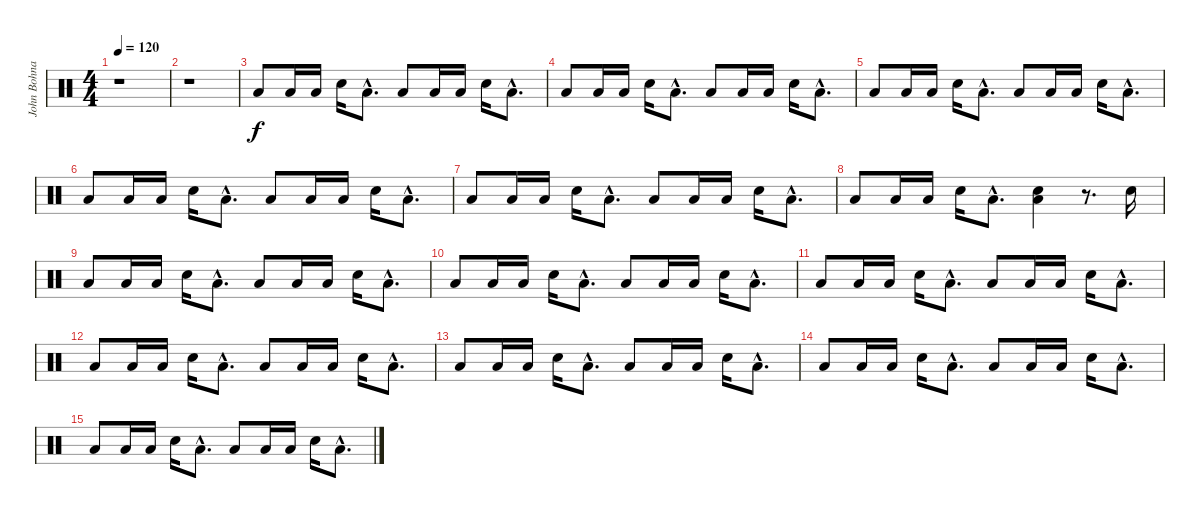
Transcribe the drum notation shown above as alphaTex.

\track ("John Bohnam - Drums" "John Bohna") {instrument percussion}
\staff {score}
\articulation defaults
\ts (4 4)
\tempo 120
\clef neutral
\ks c
r.1{dy f} |
r.1 |
"Low Floor Tom (hit)".8 "Low Floor Tom (hit)".16 "Low Floor Tom (hit)".16 "Electric Snare (hit)".16 "Low Floor Tom (hit)"{hac}.8{d} "Low Floor Tom (hit)".8 "Low Floor Tom (hit)".16 "Low Floor Tom (hit)".16 "Electric Snare (hit)".16 "Low Floor Tom (hit)"{hac}.8{d} |
"Low Floor Tom (hit)".8 "Low Floor Tom (hit)".16 "Low Floor Tom (hit)".16 "Electric Snare (hit)".16 "Low Floor Tom (hit)"{hac}.8{d} "Low Floor Tom (hit)".8 "Low Floor Tom (hit)".16 "Low Floor Tom (hit)".16 "Electric Snare (hit)".16 "Low Floor Tom (hit)"{hac}.8{d} |
"Low Floor Tom (hit)".8 "Low Floor Tom (hit)".16 "Low Floor Tom (hit)".16 "Electric Snare (hit)".16 "Low Floor Tom (hit)"{hac}.8{d} "Low Floor Tom (hit)".8 "Low Floor Tom (hit)".16 "Low Floor Tom (hit)".16 "Electric Snare (hit)".16 "Low Floor Tom (hit)"{hac}.8{d} |
"Low Floor Tom (hit)".8 "Low Floor Tom (hit)".16 "Low Floor Tom (hit)".16 "Electric Snare (hit)".16 "Low Floor Tom (hit)"{hac}.8{d} "Low Floor Tom (hit)".8 "Low Floor Tom (hit)".16 "Low Floor Tom (hit)".16 "Electric Snare (hit)".16 "Low Floor Tom (hit)"{hac}.8{d} |
"Low Floor Tom (hit)".8 "Low Floor Tom (hit)".16 "Low Floor Tom (hit)".16 "Electric Snare (hit)".16 "Low Floor Tom (hit)"{hac}.8{d} "Low Floor Tom (hit)".8 "Low Floor Tom (hit)".16 "Low Floor Tom (hit)".16 "Electric Snare (hit)".16 "Low Floor Tom (hit)"{hac}.8{d} |
"Low Floor Tom (hit)".8 "Low Floor Tom (hit)".16 "Low Floor Tom (hit)".16 "Electric Snare (hit)".16 "Low Floor Tom (hit)"{hac}.8{d} ("Electric Snare (hit)" "Low Floor Tom (hit)").4 r.8{d} "Electric Snare (hit)".16 |
"Low Floor Tom (hit)".8 "Low Floor Tom (hit)".16 "Low Floor Tom (hit)".16 "Electric Snare (hit)".16 "Low Floor Tom (hit)"{hac}.8{d} "Low Floor Tom (hit)".8 "Low Floor Tom (hit)".16 "Low Floor Tom (hit)".16 "Electric Snare (hit)".16 "Low Floor Tom (hit)"{hac}.8{d} |
"Low Floor Tom (hit)".8 "Low Floor Tom (hit)".16 "Low Floor Tom (hit)".16 "Electric Snare (hit)".16 "Low Floor Tom (hit)"{hac}.8{d} "Low Floor Tom (hit)".8 "Low Floor Tom (hit)".16 "Low Floor Tom (hit)".16 "Electric Snare (hit)".16 "Low Floor Tom (hit)"{hac}.8{d} |
"Low Floor Tom (hit)".8 "Low Floor Tom (hit)".16 "Low Floor Tom (hit)".16 "Electric Snare (hit)".16 "Low Floor Tom (hit)"{hac}.8{d} "Low Floor Tom (hit)".8 "Low Floor Tom (hit)".16 "Low Floor Tom (hit)".16 "Electric Snare (hit)".16 "Low Floor Tom (hit)"{hac}.8{d} |
"Low Floor Tom (hit)".8 "Low Floor Tom (hit)".16 "Low Floor Tom (hit)".16 "Electric Snare (hit)".16 "Low Floor Tom (hit)"{hac}.8{d} "Low Floor Tom (hit)".8 "Low Floor Tom (hit)".16 "Low Floor Tom (hit)".16 "Electric Snare (hit)".16 "Low Floor Tom (hit)"{hac}.8{d} |
"Low Floor Tom (hit)".8 "Low Floor Tom (hit)".16 "Low Floor Tom (hit)".16 "Electric Snare (hit)".16 "Low Floor Tom (hit)"{hac}.8{d} "Low Floor Tom (hit)".8 "Low Floor Tom (hit)".16 "Low Floor Tom (hit)".16 "Electric Snare (hit)".16 "Low Floor Tom (hit)"{hac}.8{d} |
"Low Floor Tom (hit)".8 "Low Floor Tom (hit)".16 "Low Floor Tom (hit)".16 "Electric Snare (hit)".16 "Low Floor Tom (hit)"{hac}.8{d} "Low Floor Tom (hit)".8 "Low Floor Tom (hit)".16 "Low Floor Tom (hit)".16 "Electric Snare (hit)".16 "Low Floor Tom (hit)"{hac}.8{d} |
"Low Floor Tom (hit)".8 "Low Floor Tom (hit)".16 "Low Floor Tom (hit)".16 "Electric Snare (hit)".16 "Low Floor Tom (hit)"{hac}.8{d} "Low Floor Tom (hit)".8 "Low Floor Tom (hit)".16 "Low Floor Tom (hit)".16 "Electric Snare (hit)".16 "Low Floor Tom (hit)"{hac}.8{d}
